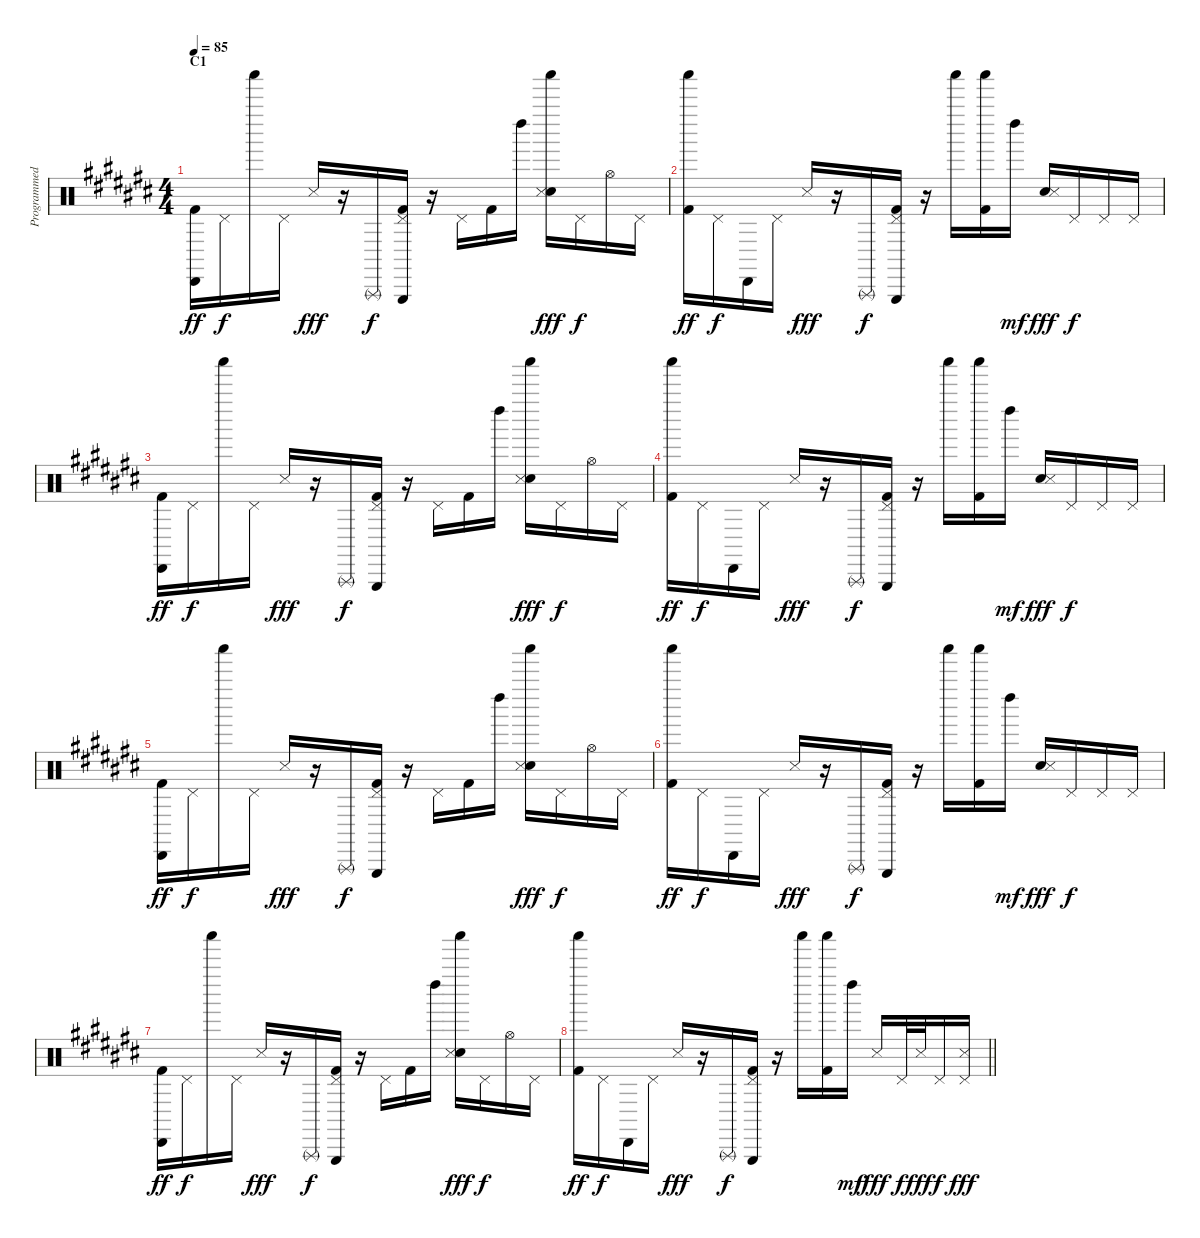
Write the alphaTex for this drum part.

\track ("Programmed Drum" "Programmed") {instrument percussion}
\staff {score}
\articulation defaults
\ts (4 4)
\section ("" "C1")
\tempo 85
\clef neutral
\ks c#
("Cabasa (hit)" "Kick (hit) 2").16{dy ff} "Pedal Hi-Hat (hit)".16{dy f} "Shaker (hit)".16 "Pedal Hi-Hat (hit)".16 "Snare (side stick) 3".16{dy fff} r.16 "Triangle (rnute)".16{dy f} ("Triangle (hit)" "Pedal Hi-Hat (hit)" "Kick (hit) 2").16 r.16 "Pedal Hi-Hat (hit)".16 "Kick (hit) 2".16 "Left Maraca (hit)".16 ("Shaker (hit)" "Hand Clap (hit)" "Snare (side stick) 3").16{dy fff} "Pedal Hi-Hat (hit)".16{dy f} "Hi-Hat (open)".16 "Pedal Hi-Hat (hit)".16 |
("Shaker (hit)" "Kick (hit) 2").16{dy ff} "Pedal Hi-Hat (hit)".16{dy f} "Cabasa (hit)".16 "Pedal Hi-Hat (hit)".16 "Snare (side stick) 3".16{dy fff} r.16 "Triangle (rnute)".16{dy f} ("Triangle (hit)" "Pedal Hi-Hat (hit)" "Kick (hit) 2").16 r.16 "Shaker (hit)".16 ("Shaker (hit)" "Kick (hit) 2").16 "Left Maraca (hit)".16{dy mf} ("Hand Clap (hit)" "Snare (side stick) 3").16{dy fff} "Pedal Hi-Hat (hit)".16{dy f} "Pedal Hi-Hat (hit)".16 "Pedal Hi-Hat (hit)".16 |
("Cabasa (hit)" "Kick (hit) 2").16{dy ff} "Pedal Hi-Hat (hit)".16{dy f} "Shaker (hit)".16 "Pedal Hi-Hat (hit)".16 "Snare (side stick) 3".16{dy fff} r.16 "Triangle (rnute)".16{dy f} ("Triangle (hit)" "Pedal Hi-Hat (hit)" "Kick (hit) 2").16 r.16 "Pedal Hi-Hat (hit)".16 "Kick (hit) 2".16 "Left Maraca (hit)".16 ("Shaker (hit)" "Hand Clap (hit)" "Snare (side stick) 3").16{dy fff} "Pedal Hi-Hat (hit)".16{dy f} "Hi-Hat (open)".16 "Pedal Hi-Hat (hit)".16 |
("Shaker (hit)" "Kick (hit) 2").16{dy ff} "Pedal Hi-Hat (hit)".16{dy f} "Cabasa (hit)".16 "Pedal Hi-Hat (hit)".16 "Snare (side stick) 3".16{dy fff} r.16 "Triangle (rnute)".16{dy f} ("Triangle (hit)" "Pedal Hi-Hat (hit)" "Kick (hit) 2").16 r.16 "Shaker (hit)".16 ("Shaker (hit)" "Kick (hit) 2").16 "Left Maraca (hit)".16{dy mf} ("Hand Clap (hit)" "Snare (side stick) 3").16{dy fff} "Pedal Hi-Hat (hit)".16{dy f} "Pedal Hi-Hat (hit)".16 "Pedal Hi-Hat (hit)".16 |
("Cabasa (hit)" "Kick (hit) 2").16{dy ff} "Pedal Hi-Hat (hit)".16{dy f} "Shaker (hit)".16 "Pedal Hi-Hat (hit)".16 "Snare (side stick) 3".16{dy fff} r.16 "Triangle (rnute)".16{dy f} ("Triangle (hit)" "Pedal Hi-Hat (hit)" "Kick (hit) 2").16 r.16 "Pedal Hi-Hat (hit)".16 "Kick (hit) 2".16 "Left Maraca (hit)".16 ("Shaker (hit)" "Hand Clap (hit)" "Snare (side stick) 3").16{dy fff} "Pedal Hi-Hat (hit)".16{dy f} "Hi-Hat (open)".16 "Pedal Hi-Hat (hit)".16 |
("Shaker (hit)" "Kick (hit) 2").16{dy ff} "Pedal Hi-Hat (hit)".16{dy f} "Cabasa (hit)".16 "Pedal Hi-Hat (hit)".16 "Snare (side stick) 3".16{dy fff} r.16 "Triangle (rnute)".16{dy f} ("Triangle (hit)" "Pedal Hi-Hat (hit)" "Kick (hit) 2").16 r.16 "Shaker (hit)".16 ("Shaker (hit)" "Kick (hit) 2").16 "Left Maraca (hit)".16{dy mf} ("Hand Clap (hit)" "Snare (side stick) 3").16{dy fff} "Pedal Hi-Hat (hit)".16{dy f} "Pedal Hi-Hat (hit)".16 "Pedal Hi-Hat (hit)".16 |
("Cabasa (hit)" "Kick (hit) 2").16{dy ff} "Pedal Hi-Hat (hit)".16{dy f} "Shaker (hit)".16 "Pedal Hi-Hat (hit)".16 "Snare (side stick) 3".16{dy fff} r.16 "Triangle (rnute)".16{dy f} ("Triangle (hit)" "Pedal Hi-Hat (hit)" "Kick (hit) 2").16 r.16 "Pedal Hi-Hat (hit)".16 "Kick (hit) 2".16 "Left Maraca (hit)".16 ("Shaker (hit)" "Hand Clap (hit)" "Snare (side stick) 3").16{dy fff} "Pedal Hi-Hat (hit)".16{dy f} "Hi-Hat (open)".16 "Pedal Hi-Hat (hit)".16 |
\barLineRight lightlight
("Shaker (hit)" "Kick (hit) 2").16{dy ff} "Pedal Hi-Hat (hit)".16{dy f} "Cabasa (hit)".16 "Pedal Hi-Hat (hit)".16 "Snare (side stick) 3".16{dy fff} r.16 "Triangle (rnute)".16{dy f} ("Triangle (hit)" "Pedal Hi-Hat (hit)" "Kick (hit) 2").16 r.16 "Shaker (hit)".16 ("Shaker (hit)" "Kick (hit) 2").16 "Left Maraca (hit)".16{dy mf} "Snare (side stick) 3".16{dy fff} "Pedal Hi-Hat (hit)".32{dy f} "Snare (side stick) 3".32{dy fff} "Pedal Hi-Hat (hit)".16{dy f} ("Pedal Hi-Hat (hit)" "Snare (side stick) 3").16{dy fff}
